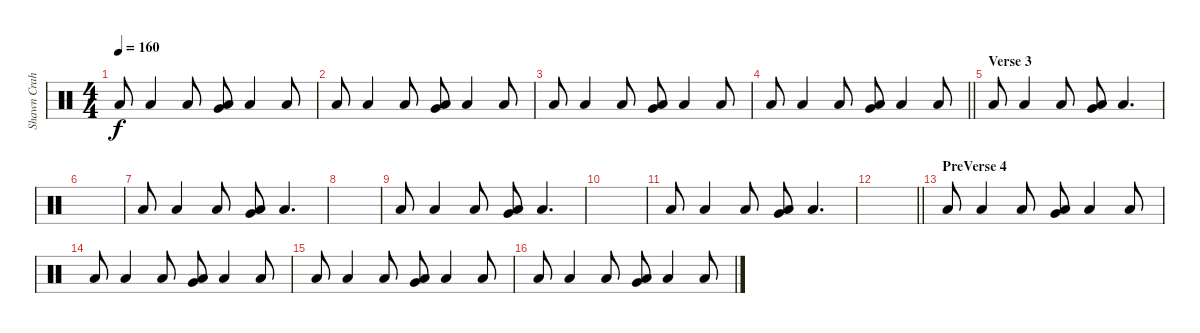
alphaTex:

\track ("Shawn Crahan" "Shawn Crah") {instrument percussion}
\staff {score}
\articulation defaults
\ts (4 4)
\tempo 160
\clef neutral
\ks c "Low Floor Tom (hit)".8{dy f} "Low Floor Tom (hit)".4 "Low Floor Tom (hit)".8
("Very Low Tom (hit)" "Low Floor Tom (hit)").8 "Low Floor Tom (hit)".4 "Low Floor Tom (hit)".8 |
"Low Floor Tom (hit)".8 "Low Floor Tom (hit)".4 "Low Floor Tom (hit)".8 ("Very Low Tom (hit)" "Low Floor Tom (hit)").8 "Low Floor Tom (hit)".4 "Low Floor Tom (hit)".8 |
"Low Floor Tom (hit)".8 "Low Floor Tom (hit)".4 "Low Floor Tom (hit)".8 ("Very Low Tom (hit)" "Low Floor Tom (hit)").8 "Low Floor Tom (hit)".4 "Low Floor Tom (hit)".8 |
\barLineRight lightlight "Low Floor Tom (hit)".8 "Low Floor Tom (hit)".4 "Low Floor Tom (hit)".8
("Very Low Tom (hit)" "Low Floor Tom (hit)").8 "Low Floor Tom (hit)".4 "Low Floor Tom (hit)".8 |
\section ("" "Verse 3")
"Low Floor Tom (hit)".8 "Low Floor Tom (hit)".4 "Low Floor Tom (hit)".8 ("Very Low Tom (hit)" "Low Floor Tom (hit)").8 "Low Floor Tom (hit)".4{d} |
|
"Low Floor Tom (hit)".8 "Low Floor Tom (hit)".4 "Low Floor Tom (hit)".8 ("Very Low Tom (hit)" "Low Floor Tom (hit)").8 "Low Floor Tom (hit)".4{d} |
|
"Low Floor Tom (hit)".8 "Low Floor Tom (hit)".4 "Low Floor Tom (hit)".8 ("Very Low Tom (hit)" "Low Floor Tom (hit)").8 "Low Floor Tom (hit)".4{d} |
|
"Low Floor Tom (hit)".8 "Low Floor Tom (hit)".4 "Low Floor Tom (hit)".8 ("Very Low Tom (hit)" "Low Floor Tom (hit)").8 "Low Floor Tom (hit)".4{d} |
\barLineRight lightlight
|
\section ("" "PreVerse 4")
"Low Floor Tom (hit)".8 "Low Floor Tom (hit)".4 "Low Floor Tom (hit)".8 ("Very Low Tom (hit)" "Low Floor Tom (hit)").8 "Low Floor Tom (hit)".4 "Low Floor Tom (hit)".8 |
"Low Floor Tom (hit)".8 "Low Floor Tom (hit)".4 "Low Floor Tom (hit)".8 ("Very Low Tom (hit)" "Low Floor Tom (hit)").8 "Low Floor Tom (hit)".4 "Low Floor Tom (hit)".8 |
"Low Floor Tom (hit)".8 "Low Floor Tom (hit)".4 "Low Floor Tom (hit)".8 ("Very Low Tom (hit)" "Low Floor Tom (hit)").8 "Low Floor Tom (hit)".4 "Low Floor Tom (hit)".8 |
"Low Floor Tom (hit)".8 "Low Floor Tom (hit)".4 "Low Floor Tom (hit)".8 ("Very Low Tom (hit)" "Low Floor Tom (hit)").8 "Low Floor Tom (hit)".4 "Low Floor Tom (hit)".8
